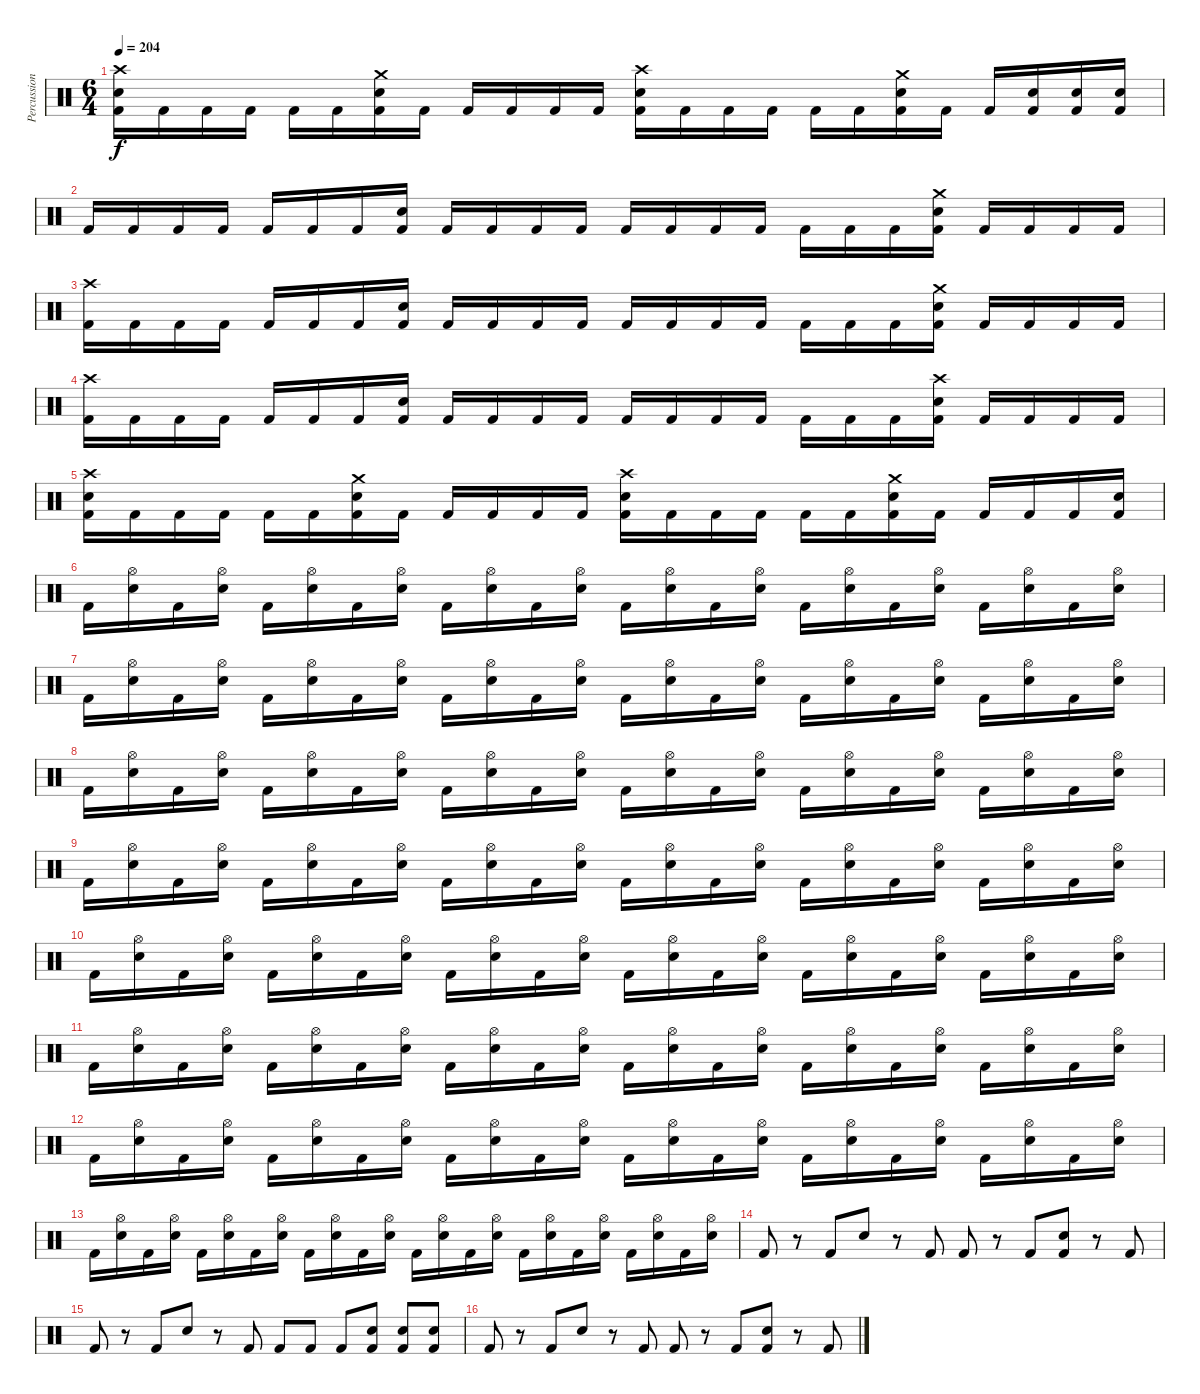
\track ("Percussions" "Percussion") {instrument percussion}
\staff {score}
\articulation defaults
\ts (6 4)
\tempo 204
\clef neutral
\ks c
("Crash high (hit)" "Electric Snare (hit)" "Kick (hit) 2").16{dy f} "Kick (hit) 2".16 "Kick (hit) 2".16 "Kick (hit) 2".16 "Kick (hit) 2".16 "Kick (hit) 2".16 ("Crash medium (hit)" "Electric Snare (hit)" "Kick (hit) 2").16 "Kick (hit) 2".16 "Kick (hit) 2".16 "Kick (hit) 2".16 "Kick (hit) 2".16 "Kick (hit) 2".16 ("Crash high (hit)" "Electric Snare (hit)" "Kick (hit) 2").16 "Kick (hit) 2".16 "Kick (hit) 2".16 "Kick (hit) 2".16 "Kick (hit) 2".16 "Kick (hit) 2".16 ("Crash medium (hit)" "Electric Snare (hit)" "Kick (hit) 2").16 "Kick (hit) 2".16 "Kick (hit) 2".16 ("Electric Snare (hit)" "Kick (hit) 2").16 ("Electric Snare (hit)" "Kick (hit) 2").16 ("Electric Snare (hit)" "Kick (hit) 2").16 |
"Kick (hit) 2".16 "Kick (hit) 2".16 "Kick (hit) 2".16 "Kick (hit) 2".16 "Kick (hit) 2".16 "Kick (hit) 2".16 "Kick (hit) 2".16 ("Electric Snare (hit)" "Kick (hit) 2").16 "Kick (hit) 2".16 "Kick (hit) 2".16 "Kick (hit) 2".16 "Kick (hit) 2".16 "Kick (hit) 2".16 "Kick (hit) 2".16 "Kick (hit) 2".16 "Kick (hit) 2".16 "Kick (hit) 2".16 "Kick (hit) 2".16 "Kick (hit) 2".16 ("Crash medium (hit)" "Electric Snare (hit)" "Kick (hit) 2").16 "Kick (hit) 2".16 "Kick (hit) 2".16 "Kick (hit) 2".16 "Kick (hit) 2".16 |
("Crash high (hit)" "Kick (hit) 2").16 "Kick (hit) 2".16 "Kick (hit) 2".16 "Kick (hit) 2".16 "Kick (hit) 2".16 "Kick (hit) 2".16 "Kick (hit) 2".16 ("Electric Snare (hit)" "Kick (hit) 2").16 "Kick (hit) 2".16 "Kick (hit) 2".16 "Kick (hit) 2".16 "Kick (hit) 2".16 "Kick (hit) 2".16 "Kick (hit) 2".16 "Kick (hit) 2".16 "Kick (hit) 2".16 "Kick (hit) 2".16 "Kick (hit) 2".16 "Kick (hit) 2".16 ("Crash medium (hit)" "Electric Snare (hit)" "Kick (hit) 2").16 "Kick (hit) 2".16 "Kick (hit) 2".16 "Kick (hit) 2".16 "Kick (hit) 2".16 |
("Crash high (hit)" "Kick (hit) 2").16 "Kick (hit) 2".16 "Kick (hit) 2".16 "Kick (hit) 2".16 "Kick (hit) 2".16 "Kick (hit) 2".16 "Kick (hit) 2".16 ("Electric Snare (hit)" "Kick (hit) 2").16 "Kick (hit) 2".16 "Kick (hit) 2".16 "Kick (hit) 2".16 "Kick (hit) 2".16 "Kick (hit) 2".16 "Kick (hit) 2".16 "Kick (hit) 2".16 "Kick (hit) 2".16 "Kick (hit) 2".16 "Kick (hit) 2".16 "Kick (hit) 2".16 ("Crash high (hit)" "Electric Snare (hit)" "Kick (hit) 2").16 "Kick (hit) 2".16 "Kick (hit) 2".16 "Kick (hit) 2".16 "Kick (hit) 2".16 |
("Crash high (hit)" "Electric Snare (hit)" "Kick (hit) 2").16 "Kick (hit) 2".16 "Kick (hit) 2".16 "Kick (hit) 2".16 "Kick (hit) 2".16 "Kick (hit) 2".16 ("Crash medium (hit)" "Electric Snare (hit)" "Kick (hit) 2").16 "Kick (hit) 2".16 "Kick (hit) 2".16 "Kick (hit) 2".16 "Kick (hit) 2".16 "Kick (hit) 2".16 ("Crash high (hit)" "Electric Snare (hit)" "Kick (hit) 2").16 "Kick (hit) 2".16 "Kick (hit) 2".16 "Kick (hit) 2".16 "Kick (hit) 2".16 "Kick (hit) 2".16 ("Crash medium (hit)" "Electric Snare (hit)" "Kick (hit) 2").16 "Kick (hit) 2".16 "Kick (hit) 2".16 "Kick (hit) 2".16 "Kick (hit) 2".16 ("Electric Snare (hit)" "Kick (hit) 2").16 |
"Kick (hit) 2".16{volume 10} ("Hi-Hat (open)" "Electric Snare (hit)").16 "Kick (hit) 2".16 ("Hi-Hat (open)" "Electric Snare (hit)").16 "Kick (hit) 2".16 ("Hi-Hat (open)" "Electric Snare (hit)").16 "Kick (hit) 2".16 ("Hi-Hat (open)" "Electric Snare (hit)").16 "Kick (hit) 2".16 ("Hi-Hat (open)" "Electric Snare (hit)").16 "Kick (hit) 2".16 ("Hi-Hat (open)" "Electric Snare (hit)").16 "Kick (hit) 2".16 ("Hi-Hat (open)" "Electric Snare (hit)").16 "Kick (hit) 2".16 ("Hi-Hat (open)" "Electric Snare (hit)").16 "Kick (hit) 2".16 ("Hi-Hat (open)" "Electric Snare (hit)").16 "Kick (hit) 2".16 ("Hi-Hat (open)" "Electric Snare (hit)").16 "Kick (hit) 2".16 ("Hi-Hat (open)" "Electric Snare (hit)").16 "Kick (hit) 2".16 ("Hi-Hat (open)" "Electric Snare (hit)").16 |
"Kick (hit) 2".16{volume 10} ("Hi-Hat (open)" "Electric Snare (hit)").16 "Kick (hit) 2".16 ("Hi-Hat (open)" "Electric Snare (hit)").16 "Kick (hit) 2".16 ("Hi-Hat (open)" "Electric Snare (hit)").16 "Kick (hit) 2".16 ("Hi-Hat (open)" "Electric Snare (hit)").16 "Kick (hit) 2".16 ("Hi-Hat (open)" "Electric Snare (hit)").16 "Kick (hit) 2".16 ("Hi-Hat (open)" "Electric Snare (hit)").16 "Kick (hit) 2".16 ("Hi-Hat (open)" "Electric Snare (hit)").16 "Kick (hit) 2".16 ("Hi-Hat (open)" "Electric Snare (hit)").16 "Kick (hit) 2".16 ("Hi-Hat (open)" "Electric Snare (hit)").16 "Kick (hit) 2".16 ("Hi-Hat (open)" "Electric Snare (hit)").16 "Kick (hit) 2".16 ("Hi-Hat (open)" "Electric Snare (hit)").16 "Kick (hit) 2".16 ("Hi-Hat (open)" "Electric Snare (hit)").16 |
"Kick (hit) 2".16{volume 10} ("Hi-Hat (open)" "Electric Snare (hit)").16 "Kick (hit) 2".16 ("Hi-Hat (open)" "Electric Snare (hit)").16 "Kick (hit) 2".16 ("Hi-Hat (open)" "Electric Snare (hit)").16 "Kick (hit) 2".16 ("Hi-Hat (open)" "Electric Snare (hit)").16 "Kick (hit) 2".16 ("Hi-Hat (open)" "Electric Snare (hit)").16 "Kick (hit) 2".16 ("Hi-Hat (open)" "Electric Snare (hit)").16 "Kick (hit) 2".16 ("Hi-Hat (open)" "Electric Snare (hit)").16 "Kick (hit) 2".16 ("Hi-Hat (open)" "Electric Snare (hit)").16 "Kick (hit) 2".16 ("Hi-Hat (open)" "Electric Snare (hit)").16 "Kick (hit) 2".16 ("Hi-Hat (open)" "Electric Snare (hit)").16 "Kick (hit) 2".16 ("Hi-Hat (open)" "Electric Snare (hit)").16 "Kick (hit) 2".16 ("Hi-Hat (open)" "Electric Snare (hit)").16 |
"Kick (hit) 2".16{volume 10} ("Hi-Hat (open)" "Electric Snare (hit)").16 "Kick (hit) 2".16 ("Hi-Hat (open)" "Electric Snare (hit)").16 "Kick (hit) 2".16 ("Hi-Hat (open)" "Electric Snare (hit)").16 "Kick (hit) 2".16 ("Hi-Hat (open)" "Electric Snare (hit)").16 "Kick (hit) 2".16 ("Hi-Hat (open)" "Electric Snare (hit)").16 "Kick (hit) 2".16 ("Hi-Hat (open)" "Electric Snare (hit)").16 "Kick (hit) 2".16 ("Hi-Hat (open)" "Electric Snare (hit)").16 "Kick (hit) 2".16 ("Hi-Hat (open)" "Electric Snare (hit)").16 "Kick (hit) 2".16 ("Hi-Hat (open)" "Electric Snare (hit)").16 "Kick (hit) 2".16 ("Hi-Hat (open)" "Electric Snare (hit)").16 "Kick (hit) 2".16 ("Hi-Hat (open)" "Electric Snare (hit)").16 "Kick (hit) 2".16 ("Hi-Hat (open)" "Electric Snare (hit)").16 |
"Kick (hit) 2".16{volume 10} ("Hi-Hat (open)" "Electric Snare (hit)").16 "Kick (hit) 2".16 ("Hi-Hat (open)" "Electric Snare (hit)").16 "Kick (hit) 2".16 ("Hi-Hat (open)" "Electric Snare (hit)").16 "Kick (hit) 2".16 ("Hi-Hat (open)" "Electric Snare (hit)").16 "Kick (hit) 2".16 ("Hi-Hat (open)" "Electric Snare (hit)").16 "Kick (hit) 2".16 ("Hi-Hat (open)" "Electric Snare (hit)").16 "Kick (hit) 2".16 ("Hi-Hat (open)" "Electric Snare (hit)").16 "Kick (hit) 2".16 ("Hi-Hat (open)" "Electric Snare (hit)").16 "Kick (hit) 2".16 ("Hi-Hat (open)" "Electric Snare (hit)").16 "Kick (hit) 2".16 ("Hi-Hat (open)" "Electric Snare (hit)").16 "Kick (hit) 2".16 ("Hi-Hat (open)" "Electric Snare (hit)").16 "Kick (hit) 2".16 ("Hi-Hat (open)" "Electric Snare (hit)").16 |
"Kick (hit) 2".16{volume 10} ("Hi-Hat (open)" "Electric Snare (hit)").16 "Kick (hit) 2".16 ("Hi-Hat (open)" "Electric Snare (hit)").16 "Kick (hit) 2".16 ("Hi-Hat (open)" "Electric Snare (hit)").16 "Kick (hit) 2".16 ("Hi-Hat (open)" "Electric Snare (hit)").16 "Kick (hit) 2".16 ("Hi-Hat (open)" "Electric Snare (hit)").16 "Kick (hit) 2".16 ("Hi-Hat (open)" "Electric Snare (hit)").16 "Kick (hit) 2".16 ("Hi-Hat (open)" "Electric Snare (hit)").16 "Kick (hit) 2".16 ("Hi-Hat (open)" "Electric Snare (hit)").16 "Kick (hit) 2".16 ("Hi-Hat (open)" "Electric Snare (hit)").16 "Kick (hit) 2".16 ("Hi-Hat (open)" "Electric Snare (hit)").16 "Kick (hit) 2".16 ("Hi-Hat (open)" "Electric Snare (hit)").16 "Kick (hit) 2".16 ("Hi-Hat (open)" "Electric Snare (hit)").16 |
"Kick (hit) 2".16{volume 10} ("Hi-Hat (open)" "Electric Snare (hit)").16 "Kick (hit) 2".16 ("Hi-Hat (open)" "Electric Snare (hit)").16 "Kick (hit) 2".16 ("Hi-Hat (open)" "Electric Snare (hit)").16 "Kick (hit) 2".16 ("Hi-Hat (open)" "Electric Snare (hit)").16 "Kick (hit) 2".16 ("Hi-Hat (open)" "Electric Snare (hit)").16 "Kick (hit) 2".16 ("Hi-Hat (open)" "Electric Snare (hit)").16 "Kick (hit) 2".16 ("Hi-Hat (open)" "Electric Snare (hit)").16 "Kick (hit) 2".16 ("Hi-Hat (open)" "Electric Snare (hit)").16 "Kick (hit) 2".16 ("Hi-Hat (open)" "Electric Snare (hit)").16 "Kick (hit) 2".16 ("Hi-Hat (open)" "Electric Snare (hit)").16 "Kick (hit) 2".16 ("Hi-Hat (open)" "Electric Snare (hit)").16 "Kick (hit) 2".16 ("Hi-Hat (open)" "Electric Snare (hit)").16 |
"Kick (hit) 2".16{volume 10} ("Hi-Hat (open)" "Electric Snare (hit)").16 "Kick (hit) 2".16 ("Hi-Hat (open)" "Electric Snare (hit)").16 "Kick (hit) 2".16 ("Hi-Hat (open)" "Electric Snare (hit)").16 "Kick (hit) 2".16 ("Hi-Hat (open)" "Electric Snare (hit)").16 "Kick (hit) 2".16 ("Hi-Hat (open)" "Electric Snare (hit)").16 "Kick (hit) 2".16 ("Hi-Hat (open)" "Electric Snare (hit)").16 "Kick (hit) 2".16 ("Hi-Hat (open)" "Electric Snare (hit)").16 "Kick (hit) 2".16 ("Hi-Hat (open)" "Electric Snare (hit)").16 "Kick (hit) 2".16 ("Hi-Hat (open)" "Electric Snare (hit)").16 "Kick (hit) 2".16 ("Hi-Hat (open)" "Electric Snare (hit)").16 "Kick (hit) 2".16 ("Hi-Hat (open)" "Electric Snare (hit)").16 "Kick (hit) 2".16 ("Hi-Hat (open)" "Electric Snare (hit)").16 |
"Kick (hit) 2".8 r.8 "Kick (hit) 2".8 "Electric Snare (hit)".8 r.8 "Kick (hit) 2".8 "Kick (hit) 2".8 r.8 "Kick (hit) 2".8 ("Electric Snare (hit)" "Kick (hit) 2").8 r.8 "Kick (hit) 2".8 |
"Kick (hit) 2".8 r.8 "Kick (hit) 2".8 "Electric Snare (hit)".8 r.8 "Kick (hit) 2".8 "Kick (hit) 2".8 "Kick (hit) 2".8 "Kick (hit) 2".8 ("Electric Snare (hit)" "Kick (hit) 2").8 ("Electric Snare (hit)" "Kick (hit) 2").8 ("Electric Snare (hit)" "Kick (hit) 2").8 |
"Kick (hit) 2".8 r.8 "Kick (hit) 2".8 "Electric Snare (hit)".8 r.8 "Kick (hit) 2".8 "Kick (hit) 2".8 r.8 "Kick (hit) 2".8 ("Electric Snare (hit)" "Kick (hit) 2").8 r.8 "Kick (hit) 2".8
